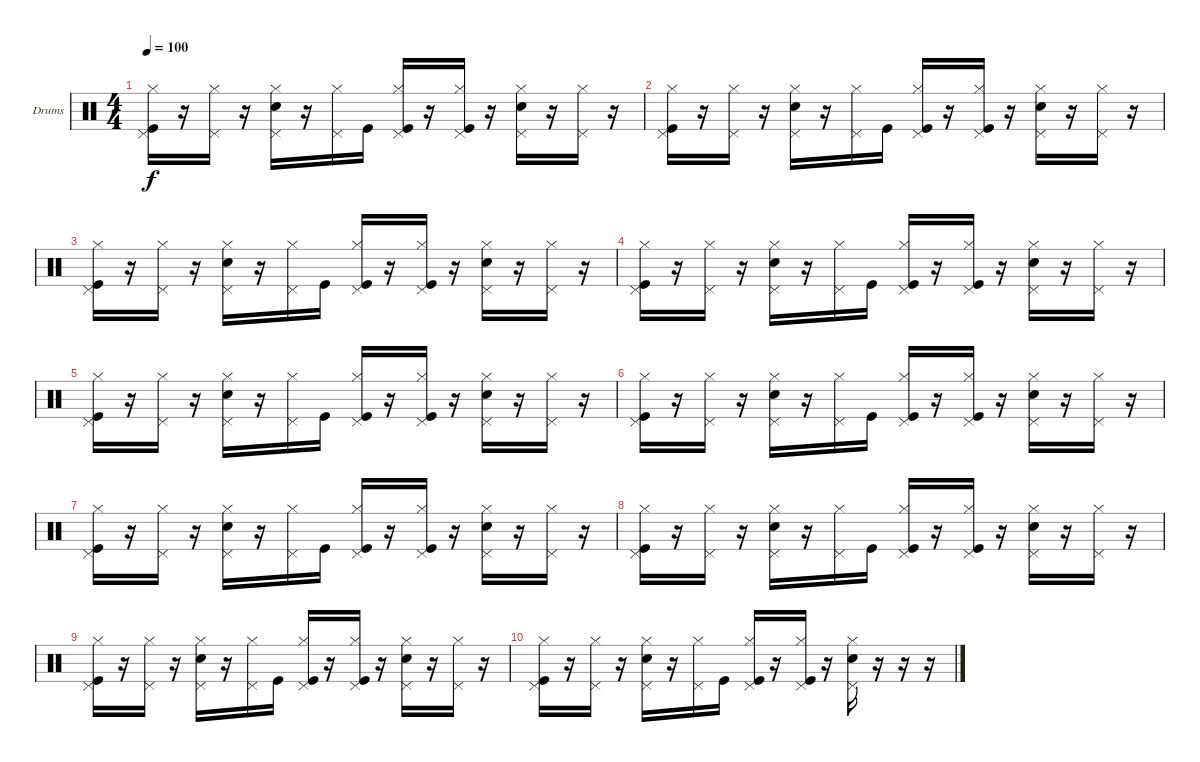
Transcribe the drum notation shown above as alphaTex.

\bracketExtendMode groupsimilarinstruments
\firstSystemTrackNameOrientation horizontal
\otherSystemsTrackNameOrientation horizontal
\track ("Drumkit" "Drums") {instrument percussion}
\staff {score}
\articulation defaults
\ts (4 4)
\tempo 100
\clef neutral
\ks c
("Kick (hit)" "Hi-Hat (closed)" "Pedal Hi-Hat (hit)").16{dy f} r.16 ("Hi-Hat (closed)" "Pedal Hi-Hat (hit)").16 r.16 ("Snare (hit) 2" "Hi-Hat (closed)" "Pedal Hi-Hat (hit)").16 r.16 ("Hi-Hat (closed)" "Pedal Hi-Hat (hit)").16 "Kick (hit)".16 ("Kick (hit)" "Hi-Hat (closed)" "Pedal Hi-Hat (hit)").16 r.16 ("Kick (hit)" "Hi-Hat (closed)" "Pedal Hi-Hat (hit)").16 r.16 ("Snare (hit) 2" "Hi-Hat (closed)" "Pedal Hi-Hat (hit)").16 r.16 ("Hi-Hat (closed)" "Pedal Hi-Hat (hit)").16 r.16 |
("Kick (hit)" "Hi-Hat (closed)" "Pedal Hi-Hat (hit)").16 r.16 ("Hi-Hat (closed)" "Pedal Hi-Hat (hit)").16 r.16 ("Snare (hit) 2" "Hi-Hat (closed)" "Pedal Hi-Hat (hit)").16 r.16 ("Hi-Hat (closed)" "Pedal Hi-Hat (hit)").16 "Kick (hit)".16 ("Kick (hit)" "Hi-Hat (closed)" "Pedal Hi-Hat (hit)").16 r.16 ("Kick (hit)" "Hi-Hat (closed)" "Pedal Hi-Hat (hit)").16 r.16 ("Snare (hit) 2" "Hi-Hat (closed)" "Pedal Hi-Hat (hit)").16 r.16 ("Hi-Hat (closed)" "Pedal Hi-Hat (hit)").16 r.16 |
("Kick (hit)" "Hi-Hat (closed)" "Pedal Hi-Hat (hit)").16 r.16 ("Hi-Hat (closed)" "Pedal Hi-Hat (hit)").16 r.16 ("Snare (hit) 2" "Hi-Hat (closed)" "Pedal Hi-Hat (hit)").16 r.16 ("Hi-Hat (closed)" "Pedal Hi-Hat (hit)").16 "Kick (hit)".16 ("Kick (hit)" "Hi-Hat (closed)" "Pedal Hi-Hat (hit)").16 r.16 ("Kick (hit)" "Hi-Hat (closed)" "Pedal Hi-Hat (hit)").16 r.16 ("Snare (hit) 2" "Hi-Hat (closed)" "Pedal Hi-Hat (hit)").16 r.16 ("Hi-Hat (closed)" "Pedal Hi-Hat (hit)").16 r.16 |
("Kick (hit)" "Hi-Hat (closed)" "Pedal Hi-Hat (hit)").16 r.16 ("Hi-Hat (closed)" "Pedal Hi-Hat (hit)").16 r.16 ("Snare (hit) 2" "Hi-Hat (closed)" "Pedal Hi-Hat (hit)").16 r.16 ("Hi-Hat (closed)" "Pedal Hi-Hat (hit)").16 "Kick (hit)".16 ("Kick (hit)" "Hi-Hat (closed)" "Pedal Hi-Hat (hit)").16 r.16 ("Kick (hit)" "Hi-Hat (closed)" "Pedal Hi-Hat (hit)").16 r.16 ("Snare (hit) 2" "Hi-Hat (closed)" "Pedal Hi-Hat (hit)").16 r.16 ("Hi-Hat (closed)" "Pedal Hi-Hat (hit)").16 r.16 |
("Kick (hit)" "Hi-Hat (closed)" "Pedal Hi-Hat (hit)").16 r.16 ("Hi-Hat (closed)" "Pedal Hi-Hat (hit)").16 r.16 ("Snare (hit) 2" "Hi-Hat (closed)" "Pedal Hi-Hat (hit)").16 r.16 ("Hi-Hat (closed)" "Pedal Hi-Hat (hit)").16 "Kick (hit)".16 ("Kick (hit)" "Hi-Hat (closed)" "Pedal Hi-Hat (hit)").16 r.16 ("Kick (hit)" "Hi-Hat (closed)" "Pedal Hi-Hat (hit)").16 r.16 ("Snare (hit) 2" "Hi-Hat (closed)" "Pedal Hi-Hat (hit)").16 r.16 ("Hi-Hat (closed)" "Pedal Hi-Hat (hit)").16 r.16 |
("Kick (hit)" "Hi-Hat (closed)" "Pedal Hi-Hat (hit)").16 r.16 ("Hi-Hat (closed)" "Pedal Hi-Hat (hit)").16 r.16 ("Snare (hit) 2" "Hi-Hat (closed)" "Pedal Hi-Hat (hit)").16 r.16 ("Hi-Hat (closed)" "Pedal Hi-Hat (hit)").16 "Kick (hit)".16 ("Kick (hit)" "Hi-Hat (closed)" "Pedal Hi-Hat (hit)").16 r.16 ("Kick (hit)" "Hi-Hat (closed)" "Pedal Hi-Hat (hit)").16 r.16 ("Snare (hit) 2" "Hi-Hat (closed)" "Pedal Hi-Hat (hit)").16 r.16 ("Hi-Hat (closed)" "Pedal Hi-Hat (hit)").16 r.16 |
("Kick (hit)" "Hi-Hat (closed)" "Pedal Hi-Hat (hit)").16 r.16 ("Hi-Hat (closed)" "Pedal Hi-Hat (hit)").16 r.16 ("Snare (hit) 2" "Hi-Hat (closed)" "Pedal Hi-Hat (hit)").16 r.16 ("Hi-Hat (closed)" "Pedal Hi-Hat (hit)").16 "Kick (hit)".16 ("Kick (hit)" "Hi-Hat (closed)" "Pedal Hi-Hat (hit)").16 r.16 ("Kick (hit)" "Hi-Hat (closed)" "Pedal Hi-Hat (hit)").16 r.16 ("Snare (hit) 2" "Hi-Hat (closed)" "Pedal Hi-Hat (hit)").16 r.16 ("Hi-Hat (closed)" "Pedal Hi-Hat (hit)").16 r.16 |
("Kick (hit)" "Hi-Hat (closed)" "Pedal Hi-Hat (hit)").16 r.16 ("Hi-Hat (closed)" "Pedal Hi-Hat (hit)").16 r.16 ("Snare (hit) 2" "Hi-Hat (closed)" "Pedal Hi-Hat (hit)").16 r.16 ("Hi-Hat (closed)" "Pedal Hi-Hat (hit)").16 "Kick (hit)".16 ("Kick (hit)" "Hi-Hat (closed)" "Pedal Hi-Hat (hit)").16 r.16 ("Kick (hit)" "Hi-Hat (closed)" "Pedal Hi-Hat (hit)").16 r.16 ("Snare (hit) 2" "Hi-Hat (closed)" "Pedal Hi-Hat (hit)").16 r.16 ("Hi-Hat (closed)" "Pedal Hi-Hat (hit)").16 r.16 |
("Kick (hit)" "Hi-Hat (closed)" "Pedal Hi-Hat (hit)").16 r.16 ("Hi-Hat (closed)" "Pedal Hi-Hat (hit)").16 r.16 ("Snare (hit) 2" "Hi-Hat (closed)" "Pedal Hi-Hat (hit)").16 r.16 ("Hi-Hat (closed)" "Pedal Hi-Hat (hit)").16 "Kick (hit)".16 ("Kick (hit)" "Hi-Hat (closed)" "Pedal Hi-Hat (hit)").16 r.16 ("Kick (hit)" "Hi-Hat (closed)" "Pedal Hi-Hat (hit)").16 r.16 ("Snare (hit) 2" "Hi-Hat (closed)" "Pedal Hi-Hat (hit)").16 r.16 ("Hi-Hat (closed)" "Pedal Hi-Hat (hit)").16 r.16 |
("Kick (hit)" "Hi-Hat (closed)" "Pedal Hi-Hat (hit)").16 r.16 ("Hi-Hat (closed)" "Pedal Hi-Hat (hit)").16 r.16 ("Snare (hit) 2" "Hi-Hat (closed)" "Pedal Hi-Hat (hit)").16 r.16 ("Hi-Hat (closed)" "Pedal Hi-Hat (hit)").16 "Kick (hit)".16 ("Kick (hit)" "Hi-Hat (closed)" "Pedal Hi-Hat (hit)").16 r.16 ("Kick (hit)" "Hi-Hat (closed)" "Pedal Hi-Hat (hit)").16 r.16 ("Snare (hit) 2" "Hi-Hat (closed)" "Pedal Hi-Hat (hit)").16 r.16 r.16 r.16
